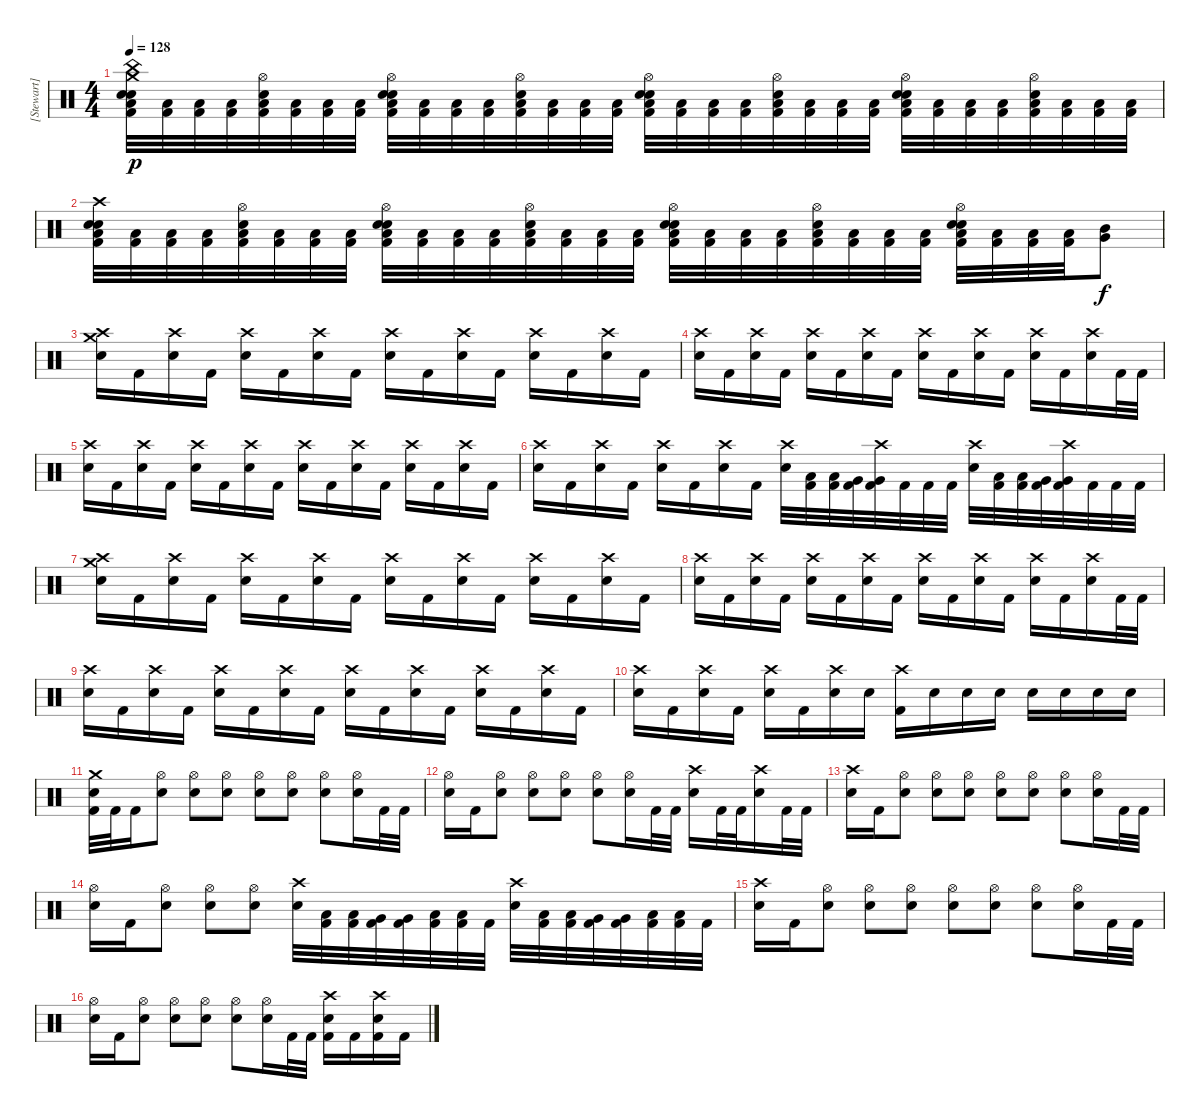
\track ("[Stewart]" "[Stewart]") {instrument percussion}
\staff {score}
\articulation defaults
\ts (4 4)
\tempo 128
\clef neutral
\ks c
("China (hit)" "Crash medium (hit)" "Low Floor Tom (hit)" "Kick (hit) 2" "Snare (hit) 2" "Electric Snare (hit)").32{dy p} ("Low Floor Tom (hit)" "Kick (hit) 2").32 ("Low Floor Tom (hit)" "Kick (hit) 2").32 ("Low Floor Tom (hit)" "Kick (hit) 2").32 ("Hi-Hat (open)" "Low Floor Tom (hit)" "Kick (hit) 2" "Electric Snare (hit)").32 ("Low Floor Tom (hit)" "Kick (hit) 2").32 ("Low Floor Tom (hit)" "Kick (hit) 2").32 ("Low Floor Tom (hit)" "Kick (hit) 2").32 ("Hi-Hat (open)" "Low Floor Tom (hit)" "Kick (hit) 2" "Snare (hit) 2" "Electric Snare (hit)").32 ("Low Floor Tom (hit)" "Kick (hit) 2").32 ("Low Floor Tom (hit)" "Kick (hit) 2").32 ("Low Floor Tom (hit)" "Kick (hit) 2").32 ("Hi-Hat (open)" "Low Floor Tom (hit)" "Kick (hit) 2" "Electric Snare (hit)").32 ("Low Floor Tom (hit)" "Kick (hit) 2").32 ("Low Floor Tom (hit)" "Kick (hit) 2").32 ("Low Floor Tom (hit)" "Kick (hit) 2").32 ("Hi-Hat (open)" "Low Floor Tom (hit)" "Kick (hit) 2" "Snare (hit) 2" "Electric Snare (hit)").32 ("Low Floor Tom (hit)" "Kick (hit) 2").32 ("Low Floor Tom (hit)" "Kick (hit) 2").32 ("Low Floor Tom (hit)" "Kick (hit) 2").32 ("Hi-Hat (open)" "Low Floor Tom (hit)" "Kick (hit) 2" "Electric Snare (hit)").32 ("Low Floor Tom (hit)" "Kick (hit) 2").32 ("Low Floor Tom (hit)" "Kick (hit) 2").32 ("Low Floor Tom (hit)" "Kick (hit) 2").32 ("Hi-Hat (open)" "Low Floor Tom (hit)" "Kick (hit) 2" "Snare (hit) 2" "Electric Snare (hit)").32 ("Low Floor Tom (hit)" "Kick (hit) 2").32 ("Low Floor Tom (hit)" "Kick (hit) 2").32 ("Low Floor Tom (hit)" "Kick (hit) 2").32 ("Hi-Hat (open)" "Low Floor Tom (hit)" "Kick (hit) 2" "Electric Snare (hit)").32 ("Low Floor Tom (hit)" "Kick (hit) 2").32 ("Low Floor Tom (hit)" "Kick (hit) 2").32 ("Low Floor Tom (hit)" "Kick (hit) 2").32 |
("Crash high (hit)" "Low Floor Tom (hit)" "Kick (hit) 2" "Snare (hit) 2" "Electric Snare (hit)").32 ("Low Floor Tom (hit)" "Kick (hit) 2").32 ("Low Floor Tom (hit)" "Kick (hit) 2").32 ("Low Floor Tom (hit)" "Kick (hit) 2").32 ("Hi-Hat (open)" "Low Floor Tom (hit)" "Kick (hit) 2" "Electric Snare (hit)").32 ("Low Floor Tom (hit)" "Kick (hit) 2").32 ("Low Floor Tom (hit)" "Kick (hit) 2").32 ("Low Floor Tom (hit)" "Kick (hit) 2").32 ("Hi-Hat (open)" "Low Floor Tom (hit)" "Kick (hit) 2" "Snare (hit) 2" "Electric Snare (hit)").32 ("Low Floor Tom (hit)" "Kick (hit) 2").32 ("Low Floor Tom (hit)" "Kick (hit) 2").32 ("Low Floor Tom (hit)" "Kick (hit) 2").32 ("Hi-Hat (open)" "Low Floor Tom (hit)" "Kick (hit) 2" "Electric Snare (hit)").32 ("Low Floor Tom (hit)" "Kick (hit) 2").32 ("Low Floor Tom (hit)" "Kick (hit) 2").32 ("Low Floor Tom (hit)" "Kick (hit) 2").32 ("Hi-Hat (open)" "Low Floor Tom (hit)" "Kick (hit) 2" "Snare (hit) 2" "Electric Snare (hit)").32 ("Low Floor Tom (hit)" "Kick (hit) 2").32 ("Low Floor Tom (hit)" "Kick (hit) 2").32 ("Low Floor Tom (hit)" "Kick (hit) 2").32 ("Hi-Hat (open)" "Low Floor Tom (hit)" "Kick (hit) 2" "Electric Snare (hit)").32 ("Low Floor Tom (hit)" "Kick (hit) 2").32 ("Low Floor Tom (hit)" "Kick (hit) 2").32 ("Low Floor Tom (hit)" "Kick (hit) 2").32 ("Hi-Hat (open)" "Low Floor Tom (hit)" "Kick (hit) 2" "Snare (hit) 2" "Electric Snare (hit)").32 ("Low Floor Tom (hit)" "Kick (hit) 2").32 ("Low Floor Tom (hit)" "Kick (hit) 2").32 ("Low Floor Tom (hit)" "Kick (hit) 2").32 ("Very Low Tom (hit)" "Mid Tom (hit)").8{dy f} |
("Crash high (hit)" "Crash medium (hit)" "Electric Snare (hit)").16 "Kick (hit) 2".16 ("Crash high (hit)" "Electric Snare (hit)").16 "Kick (hit) 2".16 ("Crash high (hit)" "Electric Snare (hit)").16 "Kick (hit) 2".16 ("Crash high (hit)" "Electric Snare (hit)").16 "Kick (hit) 2".16 ("Crash high (hit)" "Electric Snare (hit)").16 "Kick (hit) 2".16 ("Crash high (hit)" "Electric Snare (hit)").16 "Kick (hit) 2".16 ("Crash high (hit)" "Electric Snare (hit)").16 "Kick (hit) 2".16 ("Crash high (hit)" "Electric Snare (hit)").16 "Kick (hit) 2".16 |
("Crash high (hit)" "Electric Snare (hit)").16 "Kick (hit) 2".16 ("Crash high (hit)" "Electric Snare (hit)").16 "Kick (hit) 2".16 ("Crash high (hit)" "Electric Snare (hit)").16 "Kick (hit) 2".16 ("Crash high (hit)" "Electric Snare (hit)").16 "Kick (hit) 2".16 ("Crash high (hit)" "Electric Snare (hit)").16 "Kick (hit) 2".16 ("Crash high (hit)" "Electric Snare (hit)").16 "Kick (hit) 2".16 ("Crash high (hit)" "Electric Snare (hit)").16 "Kick (hit) 2".16 ("Crash high (hit)" "Electric Snare (hit)").16 "Kick (hit) 2".32 "Kick (hit) 2".32 |
("Crash high (hit)" "Electric Snare (hit)").16 "Kick (hit) 2".16 ("Crash high (hit)" "Electric Snare (hit)").16 "Kick (hit) 2".16 ("Crash high (hit)" "Electric Snare (hit)").16 "Kick (hit) 2".16 ("Crash high (hit)" "Electric Snare (hit)").16 "Kick (hit) 2".16 ("Crash high (hit)" "Electric Snare (hit)").16 "Kick (hit) 2".16 ("Crash high (hit)" "Electric Snare (hit)").16 "Kick (hit) 2".16 ("Crash high (hit)" "Electric Snare (hit)").16 "Kick (hit) 2".16 ("Crash high (hit)" "Electric Snare (hit)").16 "Kick (hit) 2".16 |
("Crash high (hit)" "Electric Snare (hit)").16 "Kick (hit) 2".16 ("Crash high (hit)" "Electric Snare (hit)").16 "Kick (hit) 2".16 ("Crash high (hit)" "Electric Snare (hit)").16 "Kick (hit) 2".16 ("Crash high (hit)" "Electric Snare (hit)").16 "Kick (hit) 2".16 ("Crash high (hit)" "Electric Snare (hit)").32 ("Low Tom (hit)" "Kick (hit) 2").32 ("Low Tom (hit)" "Kick (hit) 2").32 ("Very Low Tom (hit)" "Kick (hit) 2").32 ("Crash high (hit)" "Very Low Tom (hit)" "Kick (hit) 2").32 "Kick (hit) 2".32 "Kick (hit) 2".32 "Kick (hit) 2".32 ("Crash high (hit)" "Electric Snare (hit)").32 ("Low Tom (hit)" "Kick (hit) 2").32 ("Low Tom (hit)" "Kick (hit) 2").32 ("Very Low Tom (hit)" "Kick (hit) 2").32 ("Crash high (hit)" "Very Low Tom (hit)" "Kick (hit) 2").32 "Kick (hit) 2".32 "Kick (hit) 2".32 "Kick (hit) 2".32 |
("Crash high (hit)" "Crash medium (hit)" "Electric Snare (hit)").16 "Kick (hit) 2".16 ("Crash high (hit)" "Electric Snare (hit)").16 "Kick (hit) 2".16 ("Crash high (hit)" "Electric Snare (hit)").16 "Kick (hit) 2".16 ("Crash high (hit)" "Electric Snare (hit)").16 "Kick (hit) 2".16 ("Crash high (hit)" "Electric Snare (hit)").16 "Kick (hit) 2".16 ("Crash high (hit)" "Electric Snare (hit)").16 "Kick (hit) 2".16 ("Crash high (hit)" "Electric Snare (hit)").16 "Kick (hit) 2".16 ("Crash high (hit)" "Electric Snare (hit)").16 "Kick (hit) 2".16 |
("Crash high (hit)" "Electric Snare (hit)").16 "Kick (hit) 2".16 ("Crash high (hit)" "Electric Snare (hit)").16 "Kick (hit) 2".16 ("Crash high (hit)" "Electric Snare (hit)").16 "Kick (hit) 2".16 ("Crash high (hit)" "Electric Snare (hit)").16 "Kick (hit) 2".16 ("Crash high (hit)" "Electric Snare (hit)").16 "Kick (hit) 2".16 ("Crash high (hit)" "Electric Snare (hit)").16 "Kick (hit) 2".16 ("Crash high (hit)" "Electric Snare (hit)").16 "Kick (hit) 2".16 ("Crash high (hit)" "Electric Snare (hit)").16 "Kick (hit) 2".32 "Kick (hit) 2".32 |
("Crash high (hit)" "Electric Snare (hit)").16 "Kick (hit) 2".16 ("Crash high (hit)" "Electric Snare (hit)").16 "Kick (hit) 2".16 ("Crash high (hit)" "Electric Snare (hit)").16 "Kick (hit) 2".16 ("Crash high (hit)" "Electric Snare (hit)").16 "Kick (hit) 2".16 ("Crash high (hit)" "Electric Snare (hit)").16 "Kick (hit) 2".16 ("Crash high (hit)" "Electric Snare (hit)").16 "Kick (hit) 2".16 ("Crash high (hit)" "Electric Snare (hit)").16 "Kick (hit) 2".16 ("Crash high (hit)" "Electric Snare (hit)").16 "Kick (hit) 2".16 |
("Crash high (hit)" "Electric Snare (hit)").16 "Kick (hit) 2".16 ("Crash high (hit)" "Electric Snare (hit)").16 "Kick (hit) 2".16 ("Crash high (hit)" "Electric Snare (hit)").16 "Kick (hit) 2".16 ("Crash high (hit)" "Electric Snare (hit)").16 "Electric Snare (hit)".16 ("Crash high (hit)" "Kick (hit) 2").16 "Electric Snare (hit)".16 "Electric Snare (hit)".16 "Electric Snare (hit)".16 "Electric Snare (hit)".16 "Electric Snare (hit)".16 "Electric Snare (hit)".16 "Electric Snare (hit)".16 |
("Crash medium (hit)" "Electric Snare (hit)" "Kick (hit) 2").32 "Kick (hit) 2".32 "Kick (hit) 2".16 ("Hi-Hat (open)" "Electric Snare (hit)").8 ("Hi-Hat (open)" "Electric Snare (hit)").8 ("Hi-Hat (open)" "Electric Snare (hit)").8 ("Hi-Hat (open)" "Electric Snare (hit)").8 ("Hi-Hat (open)" "Electric Snare (hit)").8 ("Hi-Hat (open)" "Electric Snare (hit)").8 ("Hi-Hat (open)" "Electric Snare (hit)").16 "Kick (hit) 2".32 "Kick (hit) 2".32 |
("Hi-Hat (open)" "Electric Snare (hit)").16 "Kick (hit) 2".16 ("Hi-Hat (open)" "Electric Snare (hit)").8 ("Hi-Hat (open)" "Electric Snare (hit)").8 ("Hi-Hat (open)" "Electric Snare (hit)").8 ("Hi-Hat (open)" "Electric Snare (hit)").8 ("Hi-Hat (open)" "Electric Snare (hit)").16 "Kick (hit) 2".32 "Kick (hit) 2".32 ("Crash high (hit)" "Electric Snare (hit)").16 "Kick (hit) 2".32 "Kick (hit) 2".32 ("Crash high (hit)" "Electric Snare (hit)").16 "Kick (hit) 2".32 "Kick (hit) 2".32 |
("Crash high (hit)" "Electric Snare (hit)").16 "Kick (hit) 2".16 ("Hi-Hat (open)" "Electric Snare (hit)").8 ("Hi-Hat (open)" "Electric Snare (hit)").8 ("Hi-Hat (open)" "Electric Snare (hit)").8 ("Hi-Hat (open)" "Electric Snare (hit)").8 ("Hi-Hat (open)" "Electric Snare (hit)").8 ("Hi-Hat (open)" "Electric Snare (hit)").8 ("Hi-Hat (open)" "Electric Snare (hit)").16 "Kick (hit) 2".32 "Kick (hit) 2".32 |
("Hi-Hat (open)" "Electric Snare (hit)").16 "Kick (hit) 2".16 ("Hi-Hat (open)" "Electric Snare (hit)").8 ("Hi-Hat (open)" "Electric Snare (hit)").8 ("Hi-Hat (open)" "Electric Snare (hit)").8 ("Crash high (hit)" "Electric Snare (hit)").32 ("Low Tom (hit)" "Kick (hit) 2").32 ("Low Tom (hit)" "Kick (hit) 2").32 ("Very Low Tom (hit)" "Kick (hit) 2").32 ("Very Low Tom (hit)" "Kick (hit) 2").32 ("Low Tom (hit)" "Kick (hit) 2").32 ("Low Tom (hit)" "Kick (hit) 2").32 "Kick (hit) 2".32 ("Crash high (hit)" "Electric Snare (hit)").32 ("Low Tom (hit)" "Kick (hit) 2").32 ("Low Tom (hit)" "Kick (hit) 2").32 ("Very Low Tom (hit)" "Kick (hit) 2").32 ("Very Low Tom (hit)" "Kick (hit) 2").32 ("Low Tom (hit)" "Kick (hit) 2").32 ("Low Tom (hit)" "Kick (hit) 2").32 "Kick (hit) 2".32 |
("Crash high (hit)" "Electric Snare (hit)").16 "Kick (hit) 2".16 ("Hi-Hat (open)" "Electric Snare (hit)").8 ("Hi-Hat (open)" "Electric Snare (hit)").8 ("Hi-Hat (open)" "Electric Snare (hit)").8 ("Hi-Hat (open)" "Electric Snare (hit)").8 ("Hi-Hat (open)" "Electric Snare (hit)").8 ("Hi-Hat (open)" "Electric Snare (hit)").8 ("Hi-Hat (open)" "Electric Snare (hit)").16 "Kick (hit) 2".32 "Kick (hit) 2".32 |
("Hi-Hat (open)" "Electric Snare (hit)").16 "Kick (hit) 2".16 ("Hi-Hat (open)" "Electric Snare (hit)").8 ("Hi-Hat (open)" "Electric Snare (hit)").8 ("Hi-Hat (open)" "Electric Snare (hit)").8 ("Hi-Hat (open)" "Electric Snare (hit)").8 ("Hi-Hat (open)" "Electric Snare (hit)").16 "Kick (hit) 2".32 "Kick (hit) 2".32 ("Crash high (hit)" "Electric Snare (hit)" "Kick (hit) 2").16 "Kick (hit) 2".16 ("Crash high (hit)" "Electric Snare (hit)" "Kick (hit) 2").16 "Kick (hit) 2".16
